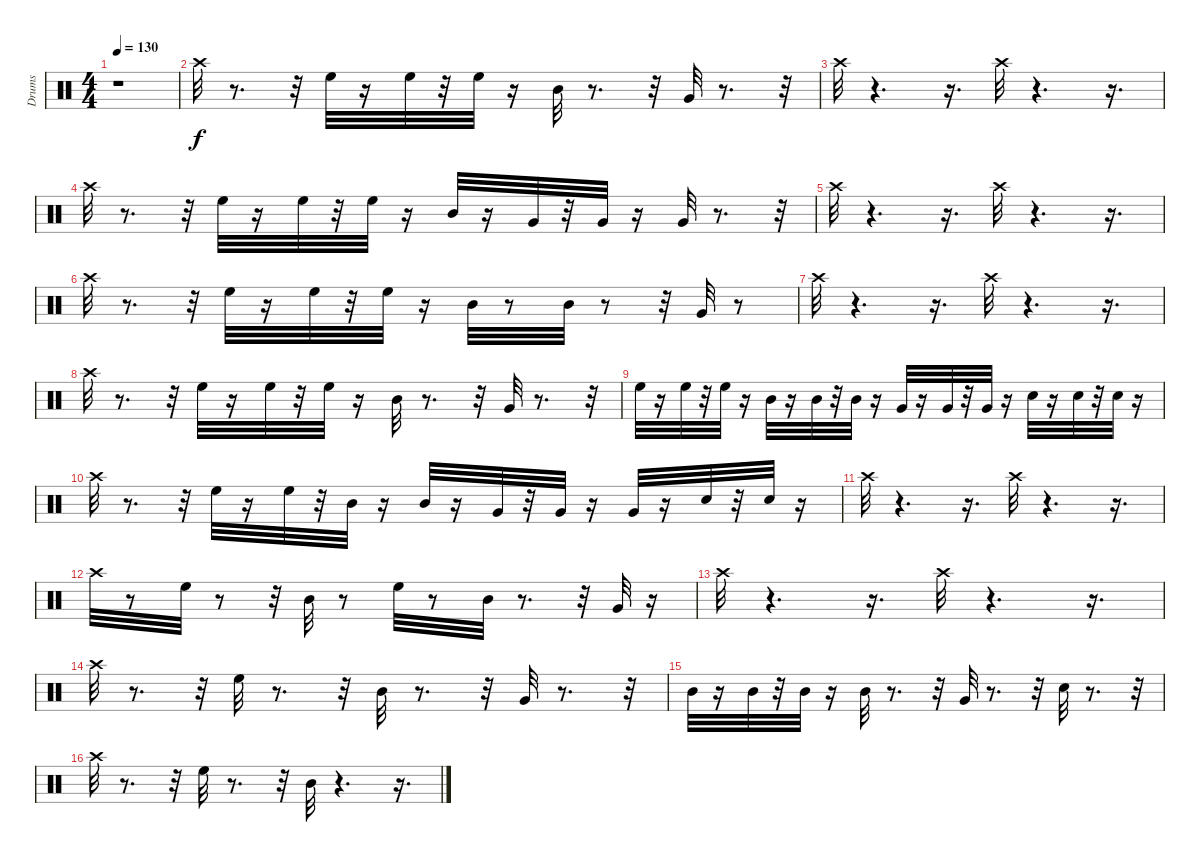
\track ("Drums" "Drums") {instrument percussion}
\staff {score}
\articulation defaults
\ts (4 4)
\tempo 130
\clef neutral
\ks c
r.1{dy f} |
"Crash high (hit)".32 r.8{d} r.32 "High Floor Tom (hit)".32 r.16 "High Floor Tom (hit)".32 r.32 "High Floor Tom (hit)".32 r.16 "Mid Tom (hit)".32 r.8{d} r.32 "Very Low Tom (hit)".32 r.8{d} r.32 |
"Crash high (hit)".32 r.4{d} r.16{d} "Crash high (hit)".32 r.4{d} r.16{d} |
"Crash high (hit)".32 r.8{d} r.32 "High Floor Tom (hit)".32 r.16 "High Floor Tom (hit)".32 r.32 "High Floor Tom (hit)".32 r.16 "Mid Tom (hit)".32 r.16 "Very Low Tom (hit)".32 r.32 "Very Low Tom (hit)".32 r.16 "Very Low Tom (hit)".32 r.8{d} r.32 |
"Crash high (hit)".32 r.4{d} r.16{d} "Crash high (hit)".32 r.4{d} r.16{d} |
"Crash high (hit)".32 r.8{d} r.32 "High Floor Tom (hit)".32 r.16 "High Floor Tom (hit)".32 r.32 "High Floor Tom (hit)".32 r.16 "Mid Tom (hit)".32 r.8 "Mid Tom (hit)".32 r.8 r.32 "Very Low Tom (hit)".32 r.8 |
"Crash high (hit)".32 r.4{d} r.16{d} "Crash high (hit)".32 r.4{d} r.16{d} |
"Crash high (hit)".32 r.8{d} r.32 "High Floor Tom (hit)".32 r.16 "High Floor Tom (hit)".32 r.32 "High Floor Tom (hit)".32 r.16 "Mid Tom (hit)".32 r.8{d} r.32 "Very Low Tom (hit)".32 r.8{d} r.32 |
"High Floor Tom (hit)".32 r.16 "High Floor Tom (hit)".32 r.32 "High Floor Tom (hit)".32 r.16 "Mid Tom (hit)".32 r.16 "Mid Tom (hit)".32 r.32 "Mid Tom (hit)".32 r.16 "Very Low Tom (hit)".32 r.16 "Very Low Tom (hit)".32 r.32 "Very Low Tom (hit)".32 r.16 "Snare (hit)".32 r.16 "Snare (hit)".32 r.32 "Snare (hit)".32 r.16 |
"Crash high (hit)".32 r.8{d} r.32 "High Floor Tom (hit)".32 r.16 "High Floor Tom (hit)".32 r.32 "Mid Tom (hit)".32 r.16 "Mid Tom (hit)".32 r.16 "Very Low Tom (hit)".32 r.32 "Very Low Tom (hit)".32 r.16 "Very Low Tom (hit)".32 r.16 "Snare (hit)".32 r.32 "Snare (hit)".32 r.16 |
"Crash high (hit)".32 r.4{d} r.16{d} "Crash high (hit)".32 r.4{d} r.16{d} |
"Crash high (hit)".32 r.8 "High Floor Tom (hit)".32 r.8 r.32 "Mid Tom (hit)".32 r.8 "High Floor Tom (hit)".32 r.8 "Mid Tom (hit)".32 r.8{d} r.32 "Very Low Tom (hit)".32 r.16 |
"Crash high (hit)".32 r.4{d} r.16{d} "Crash high (hit)".32 r.4{d} r.16{d} |
"Crash high (hit)".32 r.8{d} r.32 "High Floor Tom (hit)".32 r.8{d} r.32 "Mid Tom (hit)".32 r.8{d} r.32 "Very Low Tom (hit)".32 r.8{d} r.32 |
"Mid Tom (hit)".32 r.16 "Mid Tom (hit)".32 r.32 "Mid Tom (hit)".32 r.16 "Mid Tom (hit)".32 r.8{d} r.32 "Very Low Tom (hit)".32 r.8{d} r.32 "Snare (hit)".32 r.8{d} r.32 |
"Crash high (hit)".32 r.8{d} r.32 "High Floor Tom (hit)".32 r.8{d} r.32 "Mid Tom (hit)".32 r.4{d} r.16{d}
